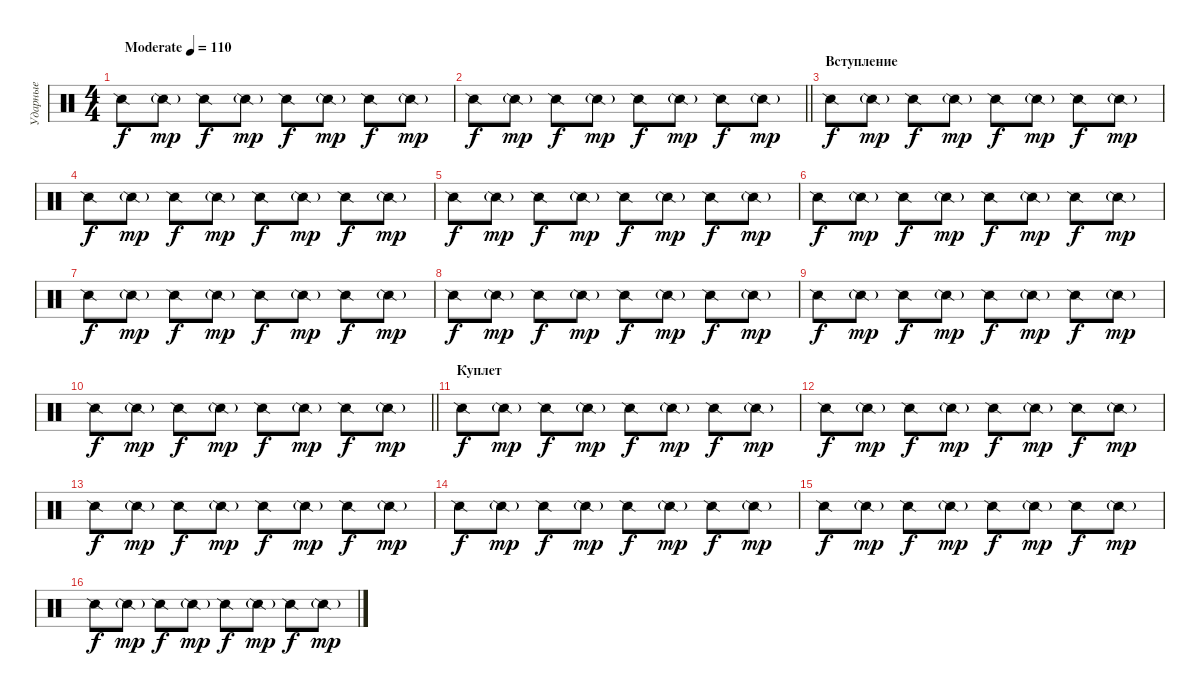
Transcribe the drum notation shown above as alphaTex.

\track ("Ударные" "Ударные") {instrument percussion}
\staff {score}
\articulation defaults
\ts (4 4)
\tempo (110 "Moderate")
\clef neutral
\ks c "Snare (side stick) 2".8{dy f volume 7} "Snare (side stick) 2"{g}.8{dy mp} "Snare (side stick) 2".8{dy f} "Snare (side stick) 2"{g}.8{dy mp} "Snare (side stick) 2".8{dy f} "Snare (side stick) 2"{g}.8{dy mp} "Snare (side stick) 2".8{dy f} "Snare (side stick) 2"{g}.8{dy mp}
|
\barLineRight lightlight "Snare (side stick) 2".8{dy f} "Snare (side stick) 2"{g}.8{dy mp} "Snare (side stick) 2".8{dy f} "Snare (side stick) 2"{g}.8{dy mp} "Snare (side stick) 2".8{dy f} "Snare (side stick) 2"{g}.8{dy mp} "Snare (side stick) 2".8{dy f} "Snare (side stick) 2"{g}.8{dy mp}
|
\section ("" "Вступление")
"Snare (side stick) 2".8{dy f} "Snare (side stick) 2"{g}.8{dy mp} "Snare (side stick) 2".8{dy f} "Snare (side stick) 2"{g}.8{dy mp} "Snare (side stick) 2".8{dy f} "Snare (side stick) 2"{g}.8{dy mp} "Snare (side stick) 2".8{dy f} "Snare (side stick) 2"{g}.8{dy mp} |
"Snare (side stick) 2".8{dy f} "Snare (side stick) 2"{g}.8{dy mp} "Snare (side stick) 2".8{dy f} "Snare (side stick) 2"{g}.8{dy mp} "Snare (side stick) 2".8{dy f} "Snare (side stick) 2"{g}.8{dy mp} "Snare (side stick) 2".8{dy f} "Snare (side stick) 2"{g}.8{dy mp} |
"Snare (side stick) 2".8{dy f} "Snare (side stick) 2"{g}.8{dy mp} "Snare (side stick) 2".8{dy f} "Snare (side stick) 2"{g}.8{dy mp} "Snare (side stick) 2".8{dy f} "Snare (side stick) 2"{g}.8{dy mp} "Snare (side stick) 2".8{dy f} "Snare (side stick) 2"{g}.8{dy mp} |
"Snare (side stick) 2".8{dy f} "Snare (side stick) 2"{g}.8{dy mp} "Snare (side stick) 2".8{dy f} "Snare (side stick) 2"{g}.8{dy mp} "Snare (side stick) 2".8{dy f} "Snare (side stick) 2"{g}.8{dy mp} "Snare (side stick) 2".8{dy f} "Snare (side stick) 2"{g}.8{dy mp} |
"Snare (side stick) 2".8{dy f} "Snare (side stick) 2"{g}.8{dy mp} "Snare (side stick) 2".8{dy f} "Snare (side stick) 2"{g}.8{dy mp} "Snare (side stick) 2".8{dy f} "Snare (side stick) 2"{g}.8{dy mp} "Snare (side stick) 2".8{dy f} "Snare (side stick) 2"{g}.8{dy mp} |
"Snare (side stick) 2".8{dy f} "Snare (side stick) 2"{g}.8{dy mp} "Snare (side stick) 2".8{dy f} "Snare (side stick) 2"{g}.8{dy mp} "Snare (side stick) 2".8{dy f} "Snare (side stick) 2"{g}.8{dy mp} "Snare (side stick) 2".8{dy f} "Snare (side stick) 2"{g}.8{dy mp} |
"Snare (side stick) 2".8{dy f} "Snare (side stick) 2"{g}.8{dy mp} "Snare (side stick) 2".8{dy f} "Snare (side stick) 2"{g}.8{dy mp} "Snare (side stick) 2".8{dy f} "Snare (side stick) 2"{g}.8{dy mp} "Snare (side stick) 2".8{dy f} "Snare (side stick) 2"{g}.8{dy mp} |
\barLineRight lightlight "Snare (side stick) 2".8{dy f} "Snare (side stick) 2"{g}.8{dy mp} "Snare (side stick) 2".8{dy f} "Snare (side stick) 2"{g}.8{dy mp} "Snare (side stick) 2".8{dy f} "Snare (side stick) 2"{g}.8{dy mp} "Snare (side stick) 2".8{dy f} "Snare (side stick) 2"{g}.8{dy mp}
|
\section ("" "Куплет")
"Snare (side stick) 2".8{dy f} "Snare (side stick) 2"{g}.8{dy mp} "Snare (side stick) 2".8{dy f} "Snare (side stick) 2"{g}.8{dy mp} "Snare (side stick) 2".8{dy f} "Snare (side stick) 2"{g}.8{dy mp} "Snare (side stick) 2".8{dy f} "Snare (side stick) 2"{g}.8{dy mp} |
"Snare (side stick) 2".8{dy f} "Snare (side stick) 2"{g}.8{dy mp} "Snare (side stick) 2".8{dy f} "Snare (side stick) 2"{g}.8{dy mp} "Snare (side stick) 2".8{dy f} "Snare (side stick) 2"{g}.8{dy mp} "Snare (side stick) 2".8{dy f} "Snare (side stick) 2"{g}.8{dy mp} |
"Snare (side stick) 2".8{dy f} "Snare (side stick) 2"{g}.8{dy mp} "Snare (side stick) 2".8{dy f} "Snare (side stick) 2"{g}.8{dy mp} "Snare (side stick) 2".8{dy f} "Snare (side stick) 2"{g}.8{dy mp} "Snare (side stick) 2".8{dy f} "Snare (side stick) 2"{g}.8{dy mp} |
"Snare (side stick) 2".8{dy f} "Snare (side stick) 2"{g}.8{dy mp} "Snare (side stick) 2".8{dy f} "Snare (side stick) 2"{g}.8{dy mp} "Snare (side stick) 2".8{dy f} "Snare (side stick) 2"{g}.8{dy mp} "Snare (side stick) 2".8{dy f} "Snare (side stick) 2"{g}.8{dy mp} |
"Snare (side stick) 2".8{dy f} "Snare (side stick) 2"{g}.8{dy mp} "Snare (side stick) 2".8{dy f} "Snare (side stick) 2"{g}.8{dy mp} "Snare (side stick) 2".8{dy f} "Snare (side stick) 2"{g}.8{dy mp} "Snare (side stick) 2".8{dy f} "Snare (side stick) 2"{g}.8{dy mp} |
"Snare (side stick) 2".8{dy f} "Snare (side stick) 2"{g}.8{dy mp} "Snare (side stick) 2".8{dy f} "Snare (side stick) 2"{g}.8{dy mp} "Snare (side stick) 2".8{dy f} "Snare (side stick) 2"{g}.8{dy mp} "Snare (side stick) 2".8{dy f} "Snare (side stick) 2"{g}.8{dy mp}
